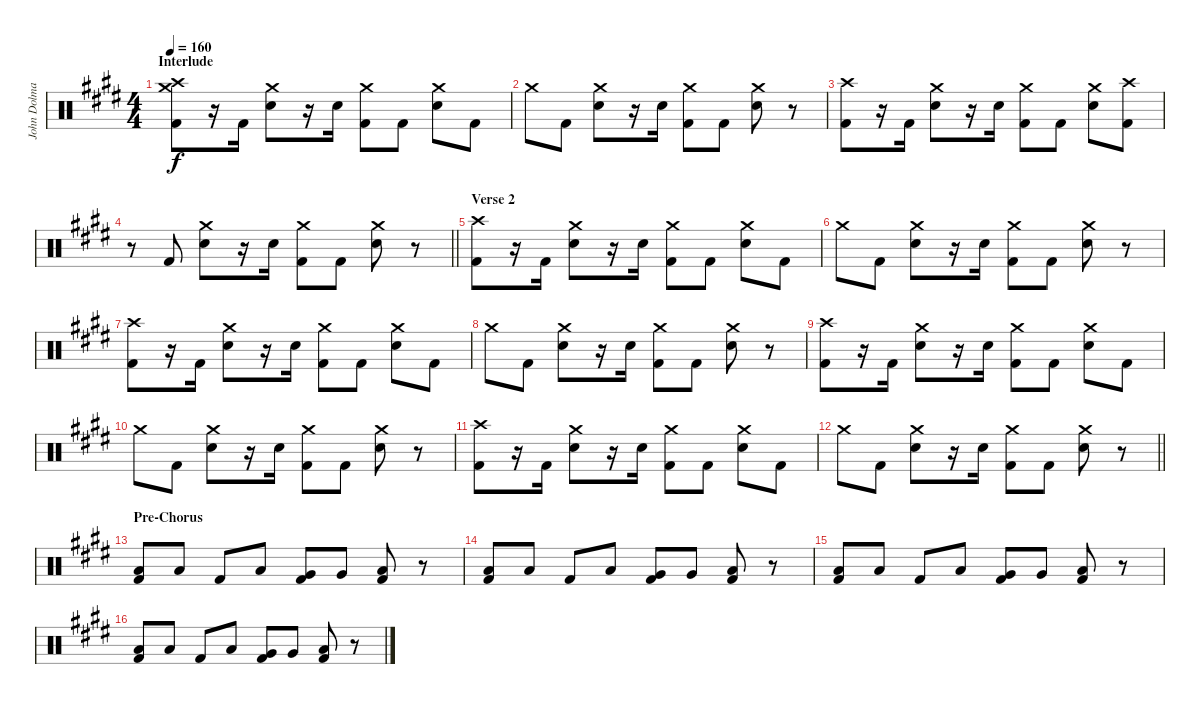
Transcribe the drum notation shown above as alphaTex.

\track ("John Dolmayan [Drums]" "John Dolma") {instrument percussion}
\staff {score}
\articulation defaults
\ts (4 4)
\section ("" "Interlude")
\tempo 160
\clef neutral
\ks c#minor
("Crash high (hit)" "Crash medium (hit)" "Kick (hit) 2").8{dy f} r.16 "Kick (hit) 2".16 ("Crash medium (hit)" "Electric Snare (hit)").8 r.16 "Electric Snare (hit)".16 ("Crash medium (hit)" "Kick (hit) 2").8 "Kick (hit) 2".8 ("Crash medium (hit)" "Electric Snare (hit)").8 "Kick (hit) 2".8 |
"Crash medium (hit)".8 "Kick (hit) 2".8 ("Crash medium (hit)" "Electric Snare (hit)").8 r.16 "Electric Snare (hit)".16 ("Crash medium (hit)" "Kick (hit) 2").8 "Kick (hit) 2".8 ("Crash medium (hit)" "Electric Snare (hit)").8 r.8 |
("Crash high (hit)" "Kick (hit) 2").8 r.16 "Kick (hit) 2".16 ("Crash medium (hit)" "Electric Snare (hit)").8 r.16 "Electric Snare (hit)".16 ("Crash medium (hit)" "Kick (hit) 2").8 "Kick (hit) 2".8 ("Crash medium (hit)" "Electric Snare (hit)").8 ("Crash high (hit)" "Kick (hit) 2").8 |
\barLineRight lightlight
r.8 "Kick (hit) 2".8 ("Crash medium (hit)" "Electric Snare (hit)").8 r.16 "Electric Snare (hit)".16 ("Crash medium (hit)" "Kick (hit) 2").8 "Kick (hit) 2".8 ("Crash medium (hit)" "Electric Snare (hit)").8 r.8 |
\section ("" "Verse 2")
("Crash high (hit)" "Kick (hit) 2").8 r.16 "Kick (hit) 2".16 ("Crash medium (hit)" "Electric Snare (hit)").8 r.16 "Electric Snare (hit)".16 ("Crash medium (hit)" "Kick (hit) 2").8 "Kick (hit) 2".8 ("Crash medium (hit)" "Electric Snare (hit)").8 "Kick (hit) 2".8 |
"Crash medium (hit)".8 "Kick (hit) 2".8 ("Crash medium (hit)" "Electric Snare (hit)").8 r.16 "Electric Snare (hit)".16 ("Crash medium (hit)" "Kick (hit) 2").8 "Kick (hit) 2".8 ("Crash medium (hit)" "Electric Snare (hit)").8 r.8 |
("Crash high (hit)" "Kick (hit) 2").8 r.16 "Kick (hit) 2".16 ("Crash medium (hit)" "Electric Snare (hit)").8 r.16 "Electric Snare (hit)".16 ("Crash medium (hit)" "Kick (hit) 2").8 "Kick (hit) 2".8 ("Crash medium (hit)" "Electric Snare (hit)").8 "Kick (hit) 2".8 |
"Crash medium (hit)".8 "Kick (hit) 2".8 ("Crash medium (hit)" "Electric Snare (hit)").8 r.16 "Electric Snare (hit)".16 ("Crash medium (hit)" "Kick (hit) 2").8 "Kick (hit) 2".8 ("Crash medium (hit)" "Electric Snare (hit)").8 r.8 |
("Crash high (hit)" "Kick (hit) 2").8 r.16 "Kick (hit) 2".16 ("Crash medium (hit)" "Electric Snare (hit)").8 r.16 "Electric Snare (hit)".16 ("Crash medium (hit)" "Kick (hit) 2").8 "Kick (hit) 2".8 ("Crash medium (hit)" "Electric Snare (hit)").8 "Kick (hit) 2".8 |
"Crash medium (hit)".8 "Kick (hit) 2".8 ("Crash medium (hit)" "Electric Snare (hit)").8 r.16 "Electric Snare (hit)".16 ("Crash medium (hit)" "Kick (hit) 2").8 "Kick (hit) 2".8 ("Crash medium (hit)" "Electric Snare (hit)").8 r.8 |
("Crash high (hit)" "Kick (hit) 2").8 r.16 "Kick (hit) 2".16 ("Crash medium (hit)" "Electric Snare (hit)").8 r.16 "Electric Snare (hit)".16 ("Crash medium (hit)" "Kick (hit) 2").8 "Kick (hit) 2".8 ("Crash medium (hit)" "Electric Snare (hit)").8 "Kick (hit) 2".8 |
\barLineRight lightlight "Crash medium (hit)".8 "Kick (hit) 2".8
("Crash medium (hit)" "Electric Snare (hit)").8 r.16 "Electric Snare (hit)".16 ("Crash medium (hit)" "Kick (hit) 2").8 "Kick (hit) 2".8 ("Crash medium (hit)" "Electric Snare (hit)").8 r.8 |
\section ("" "Pre-Chorus")
("Low Floor Tom (hit)" "Kick (hit) 2").8 "Low Floor Tom (hit)".8 "Kick (hit) 2".8 "Low Tom (hit)".8 ("Very Low Tom (hit)" "Kick (hit) 2").8 "Very Low Tom (hit)".8 ("Low Floor Tom (hit)" "Kick (hit) 2").8 r.8 |
("Low Floor Tom (hit)" "Kick (hit) 2").8 "Low Floor Tom (hit)".8 "Kick (hit) 2".8 "Low Tom (hit)".8 ("Very Low Tom (hit)" "Kick (hit) 2").8 "Very Low Tom (hit)".8 ("Low Floor Tom (hit)" "Kick (hit) 2").8 r.8 |
("Low Floor Tom (hit)" "Kick (hit) 2").8 "Low Floor Tom (hit)".8 "Kick (hit) 2".8 "Low Tom (hit)".8 ("Very Low Tom (hit)" "Kick (hit) 2").8 "Very Low Tom (hit)".8 ("Low Floor Tom (hit)" "Kick (hit) 2").8 r.8 |
("Low Floor Tom (hit)" "Kick (hit) 2").8 "Low Floor Tom (hit)".8 "Kick (hit) 2".8 "Low Tom (hit)".8 ("Very Low Tom (hit)" "Kick (hit) 2").8 "Very Low Tom (hit)".8 ("Low Floor Tom (hit)" "Kick (hit) 2").8 r.8
